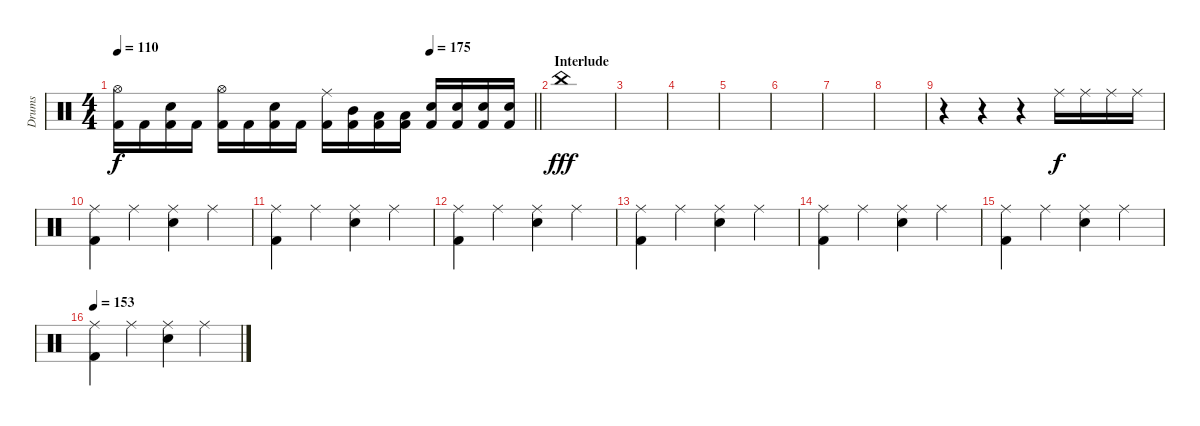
\track ("Drums" "Drums") {instrument percussion}
\staff {score}
\articulation defaults
\ts (4 4)
\tempo 110
\tempo (175 0.75)
\clef neutral
\barLineRight lightlight
\ks c
("Hi-Hat (open)" "Kick (hit) 2").16{dy f} "Kick (hit) 2".16 ("Electric Snare (hit)" "Kick (hit) 2").16 "Kick (hit) 2".16 ("Hi-Hat (open)" "Kick (hit) 2").16 "Kick (hit) 2".16 ("Electric Snare (hit)" "Kick (hit) 2").16 "Kick (hit) 2".16 ("Ride (middle)" "Kick (hit) 2").16 ("Mid Tom (hit)" "Kick (hit) 2").16 ("Low Tom (hit)" "Kick (hit) 2").16 ("Low Floor Tom (hit)" "Kick (hit) 2").16 ("Electric Snare (hit)" "Kick (hit) 2").16 ("Electric Snare (hit)" "Kick (hit) 2").16 ("Electric Snare (hit)" "Kick (hit) 2").16 ("Electric Snare (hit)" "Kick (hit) 2").16 |
\section ("" "Interlude")
"China (hit)".1{dy fff} |
|
|
|
|
|
|
r.4 r.4 r.4 "Ride (middle)".16{dy f} "Ride (middle)".16 "Ride (middle)".16 "Ride (middle)".16 |
("Ride (middle)" "Kick (hit) 2").4 "Ride (middle)".4 ("Ride (middle)" "Electric Snare (hit)").4 "Ride (middle)".4 |
("Ride (middle)" "Kick (hit) 2").4 "Ride (middle)".4 ("Ride (middle)" "Electric Snare (hit)").4 "Ride (middle)".4 |
("Ride (middle)" "Kick (hit) 2").4 "Ride (middle)".4 ("Ride (middle)" "Electric Snare (hit)").4 "Ride (middle)".4 |
("Ride (middle)" "Kick (hit) 2").4 "Ride (middle)".4 ("Ride (middle)" "Electric Snare (hit)").4 "Ride (middle)".4 |
("Ride (middle)" "Kick (hit) 2").4 "Ride (middle)".4 ("Ride (middle)" "Electric Snare (hit)").4 "Ride (middle)".4 |
("Ride (middle)" "Kick (hit) 2").4 "Ride (middle)".4 ("Ride (middle)" "Electric Snare (hit)").4 "Ride (middle)".4 |
\tempo 153
("Ride (middle)" "Kick (hit) 2").4 "Ride (middle)".4 ("Ride (middle)" "Electric Snare (hit)").4 "Ride (middle)".4
